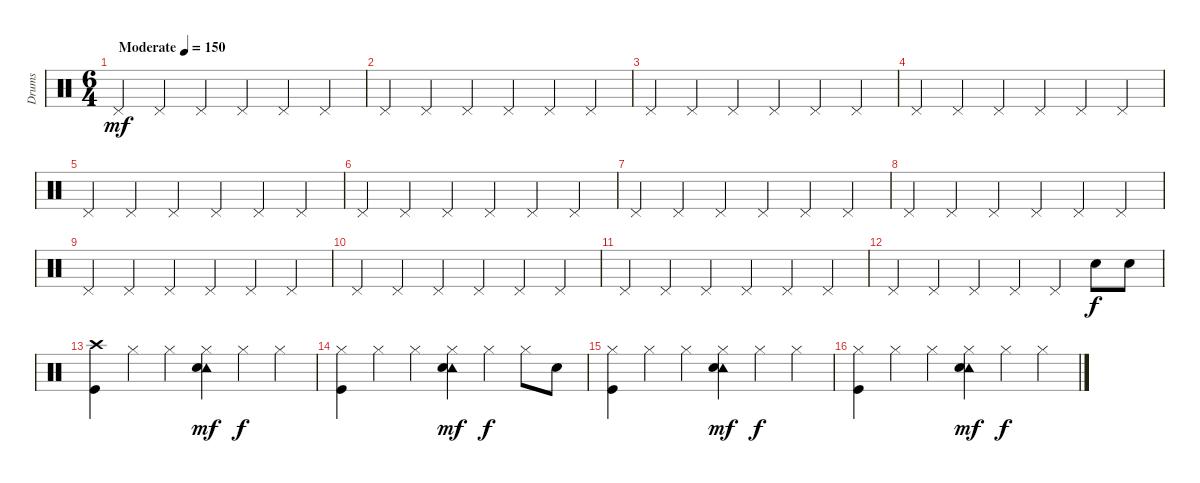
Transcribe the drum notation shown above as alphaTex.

\track ("Drums" "Drums") {instrument percussion}
\staff {score}
\articulation defaults
\ts (6 4)
\tempo (150 "Moderate")
\clef neutral
\ks c "Pedal Hi-Hat (hit)".4{dy mf} "Pedal Hi-Hat (hit)".4 "Pedal Hi-Hat (hit)".4 "Pedal Hi-Hat (hit)".4 "Pedal Hi-Hat (hit)".4 "Pedal Hi-Hat (hit)".4
|
"Pedal Hi-Hat (hit)".4 "Pedal Hi-Hat (hit)".4 "Pedal Hi-Hat (hit)".4 "Pedal Hi-Hat (hit)".4 "Pedal Hi-Hat (hit)".4 "Pedal Hi-Hat (hit)".4 |
"Pedal Hi-Hat (hit)".4 "Pedal Hi-Hat (hit)".4 "Pedal Hi-Hat (hit)".4 "Pedal Hi-Hat (hit)".4 "Pedal Hi-Hat (hit)".4 "Pedal Hi-Hat (hit)".4 |
"Pedal Hi-Hat (hit)".4 "Pedal Hi-Hat (hit)".4 "Pedal Hi-Hat (hit)".4 "Pedal Hi-Hat (hit)".4 "Pedal Hi-Hat (hit)".4 "Pedal Hi-Hat (hit)".4 |
"Pedal Hi-Hat (hit)".4 "Pedal Hi-Hat (hit)".4 "Pedal Hi-Hat (hit)".4 "Pedal Hi-Hat (hit)".4 "Pedal Hi-Hat (hit)".4 "Pedal Hi-Hat (hit)".4 |
"Pedal Hi-Hat (hit)".4 "Pedal Hi-Hat (hit)".4 "Pedal Hi-Hat (hit)".4 "Pedal Hi-Hat (hit)".4 "Pedal Hi-Hat (hit)".4 "Pedal Hi-Hat (hit)".4 |
"Pedal Hi-Hat (hit)".4 "Pedal Hi-Hat (hit)".4 "Pedal Hi-Hat (hit)".4 "Pedal Hi-Hat (hit)".4 "Pedal Hi-Hat (hit)".4 "Pedal Hi-Hat (hit)".4 |
"Pedal Hi-Hat (hit)".4 "Pedal Hi-Hat (hit)".4 "Pedal Hi-Hat (hit)".4 "Pedal Hi-Hat (hit)".4 "Pedal Hi-Hat (hit)".4 "Pedal Hi-Hat (hit)".4 |
"Pedal Hi-Hat (hit)".4 "Pedal Hi-Hat (hit)".4 "Pedal Hi-Hat (hit)".4 "Pedal Hi-Hat (hit)".4 "Pedal Hi-Hat (hit)".4 "Pedal Hi-Hat (hit)".4 |
"Pedal Hi-Hat (hit)".4 "Pedal Hi-Hat (hit)".4 "Pedal Hi-Hat (hit)".4 "Pedal Hi-Hat (hit)".4 "Pedal Hi-Hat (hit)".4 "Pedal Hi-Hat (hit)".4 |
"Pedal Hi-Hat (hit)".4 "Pedal Hi-Hat (hit)".4 "Pedal Hi-Hat (hit)".4 "Pedal Hi-Hat (hit)".4 "Pedal Hi-Hat (hit)".4 "Pedal Hi-Hat (hit)".4 |
"Pedal Hi-Hat (hit)".4 "Pedal Hi-Hat (hit)".4 "Pedal Hi-Hat (hit)".4 "Pedal Hi-Hat (hit)".4 "Pedal Hi-Hat (hit)".4 "Electric Snare (hit)".8{dy f} "Electric Snare (hit)".8 |
("Crash high (hit)" "Kick (hit)").4 "Hi-Hat (closed)".4 "Hi-Hat (closed)".4 ("Tambourine (hit)" "Hi-Hat (closed)" "Electric Snare (hit)").4{dy mf} "Hi-Hat (closed)".4{dy f} "Hi-Hat (closed)".4 |
("Hi-Hat (closed)" "Kick (hit)").4 "Hi-Hat (closed)".4 "Hi-Hat (closed)".4 ("Tambourine (hit)" "Hi-Hat (closed)" "Electric Snare (hit)").4{dy mf} "Hi-Hat (closed)".4{dy f} "Hi-Hat (closed)".8 "Electric Snare (hit)".8 |
("Hi-Hat (closed)" "Kick (hit)").4 "Hi-Hat (closed)".4 "Hi-Hat (closed)".4 ("Tambourine (hit)" "Hi-Hat (closed)" "Electric Snare (hit)").4{dy mf} "Hi-Hat (closed)".4{dy f} "Hi-Hat (closed)".4 |
("Hi-Hat (closed)" "Kick (hit)").4 "Hi-Hat (closed)".4 "Hi-Hat (closed)".4 ("Tambourine (hit)" "Hi-Hat (closed)" "Electric Snare (hit)").4{dy mf} "Hi-Hat (closed)".4{dy f} "Hi-Hat (closed)".4
